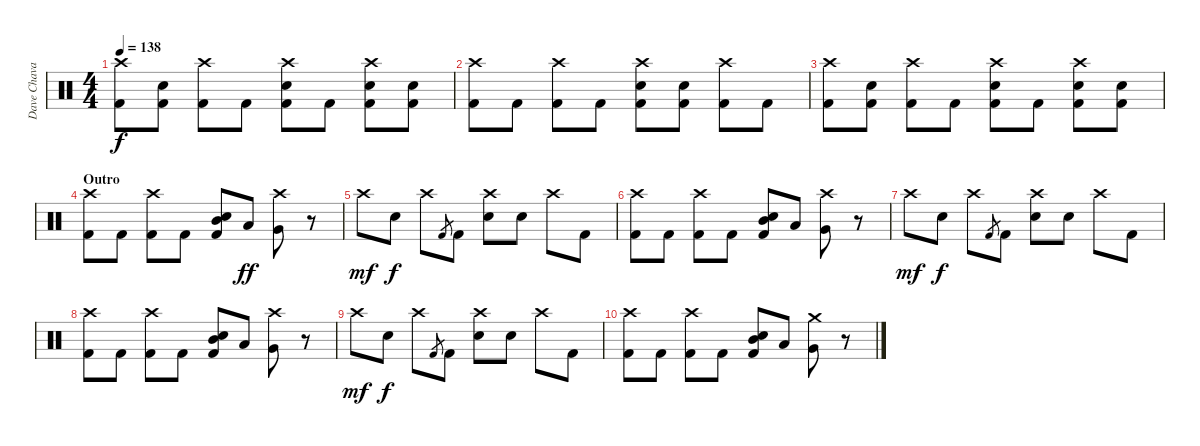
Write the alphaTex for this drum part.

\track ("Dave Chavarri - Drums" "Dave Chava") {instrument percussion}
\staff {score}
\articulation defaults
\ts (4 4)
\tempo 138
\clef neutral
\ks c
("Crash high (hit)" "Kick (hit) 2").8{dy f} ("Electric Snare (hit)" "Kick (hit) 2").8 ("Crash high (hit)" "Kick (hit) 2").8 "Kick (hit) 2".8 ("Crash high (hit)" "Electric Snare (hit)" "Kick (hit) 2").8 "Kick (hit) 2".8 ("Crash high (hit)" "Electric Snare (hit)" "Kick (hit) 2").8 ("Electric Snare (hit)" "Kick (hit) 2").8 |
("Crash high (hit)" "Kick (hit) 2").8 "Kick (hit) 2".8 ("Crash high (hit)" "Kick (hit) 2").8 "Kick (hit) 2".8 ("Crash high (hit)" "Electric Snare (hit)" "Kick (hit) 2").8 ("Electric Snare (hit)" "Kick (hit) 2").8 ("Crash high (hit)" "Kick (hit) 2").8 "Kick (hit) 2".8 |
("Crash high (hit)" "Kick (hit) 2").8 ("Electric Snare (hit)" "Kick (hit) 2").8 ("Crash high (hit)" "Kick (hit) 2").8 "Kick (hit) 2".8 ("Crash high (hit)" "Electric Snare (hit)" "Kick (hit) 2").8 "Kick (hit) 2".8 ("Crash high (hit)" "Electric Snare (hit)" "Kick (hit) 2").8 ("Electric Snare (hit)" "Kick (hit) 2").8 |
\section ("" "Outro")
("Crash high (hit)" "Kick (hit) 2").8 "Kick (hit) 2".8 ("Crash high (hit)" "Kick (hit) 2").8 "Kick (hit) 2".8 ("Electric Snare (hit)" "Mid Tom (hit)" "Kick (hit) 2").8 "Low Tom (hit)".8{dy ff} ("Crash high (hit)" "Very Low Tom (hit)").8 r.8 |
"Crash high (hit)".8{dy mf} "Electric Snare (hit)".8{dy f} "Crash high (hit)".8 "Kick (hit) 2".8{gr} "Kick (hit) 2".8 ("Crash high (hit)" "Electric Snare (hit)").8 "Electric Snare (hit)".8 "Crash high (hit)".8 "Kick (hit) 2".8 |
("Crash high (hit)" "Kick (hit) 2").8 "Kick (hit) 2".8 ("Crash high (hit)" "Kick (hit) 2").8 "Kick (hit) 2".8 ("Electric Snare (hit)" "Mid Tom (hit)" "Kick (hit) 2").8 "Low Tom (hit)".8 ("Crash high (hit)" "Very Low Tom (hit)").8 r.8 |
"Crash high (hit)".8{dy mf} "Electric Snare (hit)".8{dy f} "Crash high (hit)".8 "Kick (hit) 2".8{gr} "Kick (hit) 2".8 ("Crash high (hit)" "Electric Snare (hit)").8 "Electric Snare (hit)".8 "Crash high (hit)".8 "Kick (hit) 2".8 |
("Crash high (hit)" "Kick (hit) 2").8 "Kick (hit) 2".8 ("Crash high (hit)" "Kick (hit) 2").8 "Kick (hit) 2".8 ("Electric Snare (hit)" "Mid Tom (hit)" "Kick (hit) 2").8 "Low Tom (hit)".8 ("Crash high (hit)" "Very Low Tom (hit)").8 r.8 |
"Crash high (hit)".8{dy mf} "Electric Snare (hit)".8{dy f} "Crash high (hit)".8 "Kick (hit) 2".8{gr} "Kick (hit) 2".8 ("Crash high (hit)" "Electric Snare (hit)").8 "Electric Snare (hit)".8 "Crash high (hit)".8 "Kick (hit) 2".8 |
("Crash high (hit)" "Kick (hit) 2").8 "Kick (hit) 2".8 ("Crash high (hit)" "Kick (hit) 2").8 "Kick (hit) 2".8 ("Electric Snare (hit)" "Mid Tom (hit)" "Kick (hit) 2").8 "Low Tom (hit)".8 ("Crash medium (hit)" "Very Low Tom (hit)").8 r.8
